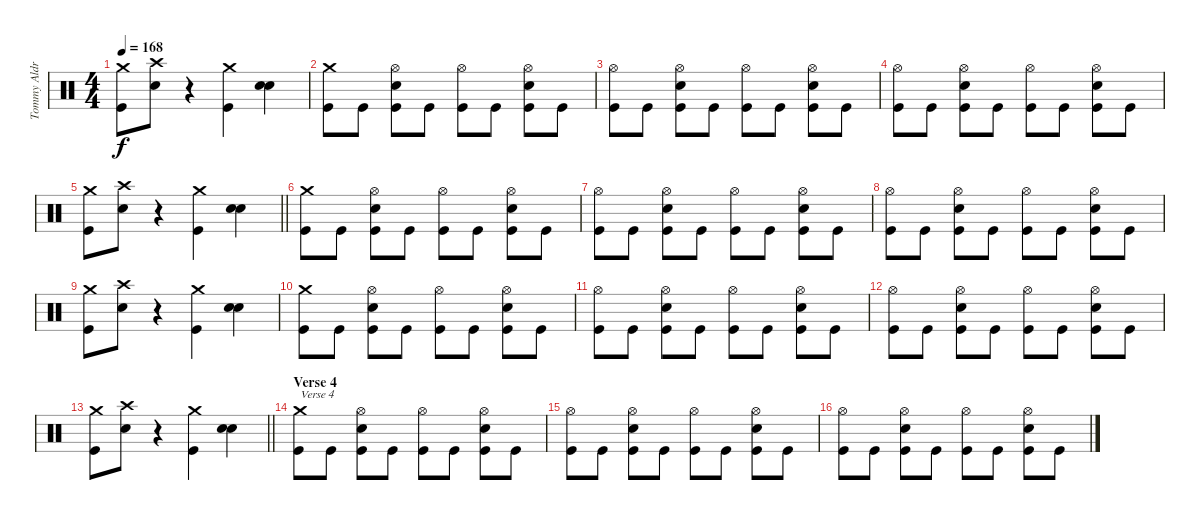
\track ("Tommy Aldrige" "Tommy Aldr") {instrument percussion}
\staff {score}
\articulation defaults
\ts (4 4)
\tempo 168
\clef neutral
\ks c
("Crash medium (hit)" "Kick (hit)").8{dy f} ("Crash high (hit)" "Snare (hit) 2").8 r.4 ("Crash medium (hit)" "Kick (hit)").4 ("Snare (hit) 2" "Snare (hit) 2").4{bd 240} |
("Crash medium (hit)" "Kick (hit)").8 "Kick (hit)".8 ("Hi-Hat (open)" "Snare (hit) 2" "Kick (hit)").8 "Kick (hit)".8 ("Hi-Hat (open)" "Kick (hit)").8 "Kick (hit)".8 ("Hi-Hat (open)" "Snare (hit) 2" "Kick (hit)").8 "Kick (hit)".8 |
("Hi-Hat (open)" "Kick (hit)").8 "Kick (hit)".8 ("Hi-Hat (open)" "Snare (hit) 2" "Kick (hit)").8 "Kick (hit)".8 ("Hi-Hat (open)" "Kick (hit)").8 "Kick (hit)".8 ("Hi-Hat (open)" "Snare (hit) 2" "Kick (hit)").8 "Kick (hit)".8 |
("Hi-Hat (open)" "Kick (hit)").8 "Kick (hit)".8 ("Hi-Hat (open)" "Snare (hit) 2" "Kick (hit)").8 "Kick (hit)".8 ("Hi-Hat (open)" "Kick (hit)").8 "Kick (hit)".8 ("Hi-Hat (open)" "Snare (hit) 2" "Kick (hit)").8 "Kick (hit)".8 |
\barLineRight lightlight
("Crash medium (hit)" "Kick (hit)").8 ("Crash high (hit)" "Snare (hit) 2").8 r.4 ("Crash medium (hit)" "Kick (hit)").4 ("Snare (hit) 2" "Snare (hit) 2").4{bd 240} |
("Crash medium (hit)" "Kick (hit)").8 "Kick (hit)".8 ("Hi-Hat (open)" "Snare (hit) 2" "Kick (hit)").8 "Kick (hit)".8 ("Hi-Hat (open)" "Kick (hit)").8 "Kick (hit)".8 ("Hi-Hat (open)" "Snare (hit) 2" "Kick (hit)").8 "Kick (hit)".8 |
("Hi-Hat (open)" "Kick (hit)").8 "Kick (hit)".8 ("Hi-Hat (open)" "Snare (hit) 2" "Kick (hit)").8 "Kick (hit)".8 ("Hi-Hat (open)" "Kick (hit)").8 "Kick (hit)".8 ("Hi-Hat (open)" "Snare (hit) 2" "Kick (hit)").8 "Kick (hit)".8 |
("Hi-Hat (open)" "Kick (hit)").8 "Kick (hit)".8 ("Hi-Hat (open)" "Snare (hit) 2" "Kick (hit)").8 "Kick (hit)".8 ("Hi-Hat (open)" "Kick (hit)").8 "Kick (hit)".8 ("Hi-Hat (open)" "Snare (hit) 2" "Kick (hit)").8 "Kick (hit)".8 |
("Crash medium (hit)" "Kick (hit)").8 ("Crash high (hit)" "Snare (hit) 2").8 r.4 ("Crash medium (hit)" "Kick (hit)").4 ("Snare (hit) 2" "Snare (hit) 2").4{bd 240} |
("Crash medium (hit)" "Kick (hit)").8 "Kick (hit)".8 ("Hi-Hat (open)" "Snare (hit) 2" "Kick (hit)").8 "Kick (hit)".8 ("Hi-Hat (open)" "Kick (hit)").8 "Kick (hit)".8 ("Hi-Hat (open)" "Snare (hit) 2" "Kick (hit)").8 "Kick (hit)".8 |
("Hi-Hat (open)" "Kick (hit)").8 "Kick (hit)".8 ("Hi-Hat (open)" "Snare (hit) 2" "Kick (hit)").8 "Kick (hit)".8 ("Hi-Hat (open)" "Kick (hit)").8 "Kick (hit)".8 ("Hi-Hat (open)" "Snare (hit) 2" "Kick (hit)").8 "Kick (hit)".8 |
("Hi-Hat (open)" "Kick (hit)").8 "Kick (hit)".8 ("Hi-Hat (open)" "Snare (hit) 2" "Kick (hit)").8 "Kick (hit)".8 ("Hi-Hat (open)" "Kick (hit)").8 "Kick (hit)".8 ("Hi-Hat (open)" "Snare (hit) 2" "Kick (hit)").8 "Kick (hit)".8 |
\barLineRight lightlight
("Crash medium (hit)" "Kick (hit)").8 ("Crash high (hit)" "Snare (hit) 2").8 r.4 ("Crash medium (hit)" "Kick (hit)").4 ("Snare (hit) 2" "Snare (hit) 2").4{bd 240} |
\section ("" "Verse 4")
("Crash medium (hit)" "Kick (hit)").8{txt "Verse 4"} "Kick (hit)".8 ("Hi-Hat (open)" "Snare (hit) 2" "Kick (hit)").8 "Kick (hit)".8 ("Hi-Hat (open)" "Kick (hit)").8 "Kick (hit)".8 ("Hi-Hat (open)" "Snare (hit) 2" "Kick (hit)").8 "Kick (hit)".8 |
("Hi-Hat (open)" "Kick (hit)").8 "Kick (hit)".8 ("Hi-Hat (open)" "Snare (hit) 2" "Kick (hit)").8 "Kick (hit)".8 ("Hi-Hat (open)" "Kick (hit)").8 "Kick (hit)".8 ("Hi-Hat (open)" "Snare (hit) 2" "Kick (hit)").8 "Kick (hit)".8 |
("Hi-Hat (open)" "Kick (hit)").8 "Kick (hit)".8 ("Hi-Hat (open)" "Snare (hit) 2" "Kick (hit)").8 "Kick (hit)".8 ("Hi-Hat (open)" "Kick (hit)").8 "Kick (hit)".8 ("Hi-Hat (open)" "Snare (hit) 2" "Kick (hit)").8 "Kick (hit)".8
